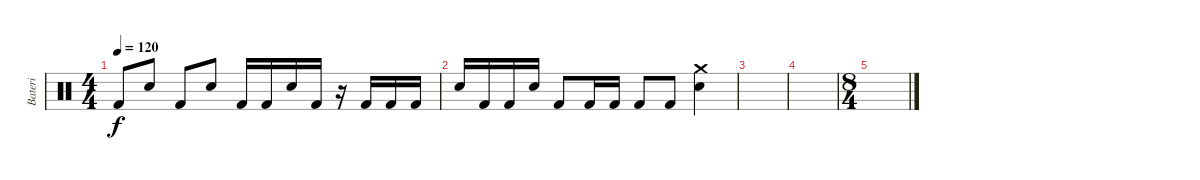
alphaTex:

\track ("Bateri" "Bateri") {instrument percussion}
\staff {score}
\articulation defaults
\ts (4 4)
\tempo 120
\clef neutral
\ks c "Kick (hit) 2".8{dy f} "Electric Snare (hit)".8 "Kick (hit) 2".8 "Electric Snare (hit)".8 "Kick (hit) 2".16 "Kick (hit) 2".16 "Electric Snare (hit)".16 "Kick (hit) 2".16
r.16 "Kick (hit) 2".16 "Kick (hit) 2".16 "Kick (hit) 2".16 |
"Electric Snare (hit)".16 "Kick (hit) 2".16 "Kick (hit) 2".16 "Electric Snare (hit)".16 "Kick (hit) 2".8 "Kick (hit) 2".16 "Kick (hit) 2".16 "Kick (hit) 2".8 "Kick (hit) 2".8 ("Electric Snare (hit)" "Crash medium (hit)").4 |
|
|
\ts (8 4)
